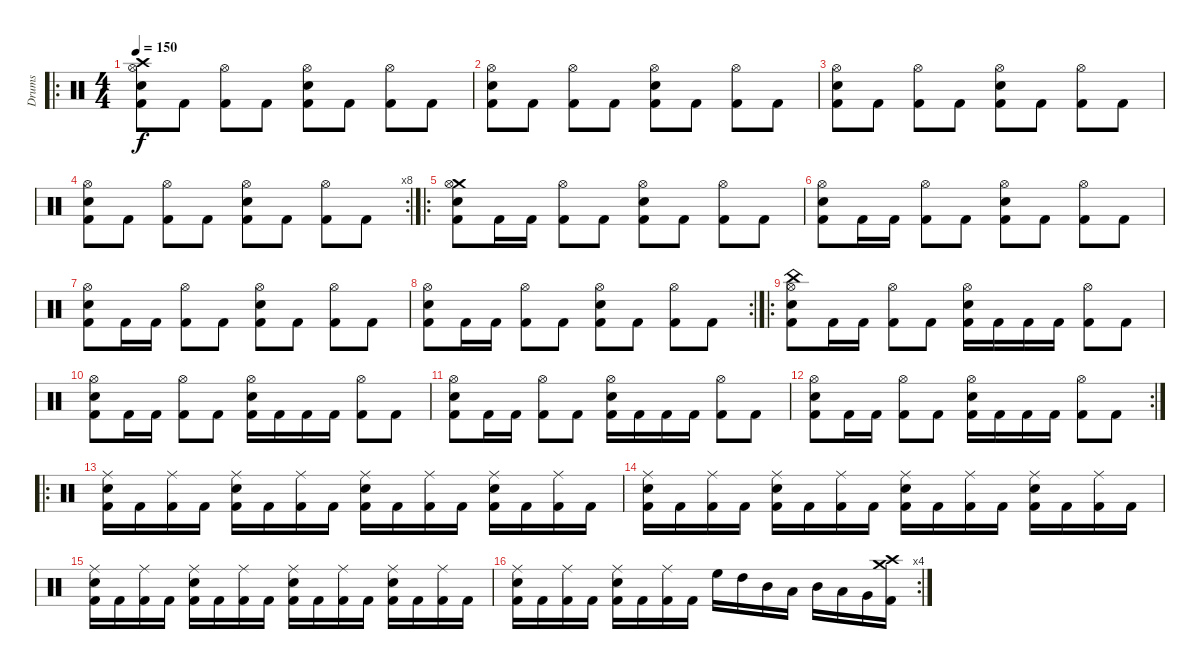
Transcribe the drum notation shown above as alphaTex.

\track ("Drums" "Drums") {instrument percussion}
\staff {score}
\articulation defaults
\ro
\ts (4 4)
\tempo 150
\clef neutral
\ks c
("Crash high (hit)" "Hi-Hat (open)" "Snare (hit) 2" "Kick (hit) 2").8{dy f} "Kick (hit) 2".8 ("Hi-Hat (open)" "Kick (hit) 2").8 "Kick (hit) 2".8 ("Hi-Hat (open)" "Snare (hit) 2" "Kick (hit) 2").8 "Kick (hit) 2".8 ("Hi-Hat (open)" "Kick (hit) 2").8 "Kick (hit) 2".8 |
("Hi-Hat (open)" "Snare (hit) 2" "Kick (hit) 2").8 "Kick (hit) 2".8 ("Hi-Hat (open)" "Kick (hit) 2").8 "Kick (hit) 2".8 ("Hi-Hat (open)" "Snare (hit) 2" "Kick (hit) 2").8 "Kick (hit) 2".8 ("Hi-Hat (open)" "Kick (hit) 2").8 "Kick (hit) 2".8 |
("Hi-Hat (open)" "Snare (hit) 2" "Kick (hit) 2").8 "Kick (hit) 2".8 ("Hi-Hat (open)" "Kick (hit) 2").8 "Kick (hit) 2".8 ("Hi-Hat (open)" "Snare (hit) 2" "Kick (hit) 2").8 "Kick (hit) 2".8 ("Hi-Hat (open)" "Kick (hit) 2").8 "Kick (hit) 2".8 |
\rc 8
("Hi-Hat (open)" "Snare (hit) 2" "Kick (hit) 2").8 "Kick (hit) 2".8 ("Hi-Hat (open)" "Kick (hit) 2").8 "Kick (hit) 2".8 ("Hi-Hat (open)" "Snare (hit) 2" "Kick (hit) 2").8 "Kick (hit) 2".8 ("Hi-Hat (open)" "Kick (hit) 2").8 "Kick (hit) 2".8 |
\ro
("Crash medium (hit)" "Hi-Hat (open)" "Snare (hit) 2" "Kick (hit) 2").8 "Kick (hit) 2".16 "Kick (hit) 2".16 ("Hi-Hat (open)" "Kick (hit) 2").8 "Kick (hit) 2".8 ("Hi-Hat (open)" "Snare (hit) 2" "Kick (hit) 2").8 "Kick (hit) 2".8 ("Hi-Hat (open)" "Kick (hit) 2").8 "Kick (hit) 2".8 |
("Hi-Hat (open)" "Snare (hit) 2" "Kick (hit) 2").8 "Kick (hit) 2".16 "Kick (hit) 2".16 ("Hi-Hat (open)" "Kick (hit) 2").8 "Kick (hit) 2".8 ("Hi-Hat (open)" "Snare (hit) 2" "Kick (hit) 2").8 "Kick (hit) 2".8 ("Hi-Hat (open)" "Kick (hit) 2").8 "Kick (hit) 2".8 |
("Hi-Hat (open)" "Snare (hit) 2" "Kick (hit) 2").8 "Kick (hit) 2".16 "Kick (hit) 2".16 ("Hi-Hat (open)" "Kick (hit) 2").8 "Kick (hit) 2".8 ("Hi-Hat (open)" "Snare (hit) 2" "Kick (hit) 2").8 "Kick (hit) 2".8 ("Hi-Hat (open)" "Kick (hit) 2").8 "Kick (hit) 2".8 |
\rc 2
("Hi-Hat (open)" "Snare (hit) 2" "Kick (hit) 2").8 "Kick (hit) 2".16 "Kick (hit) 2".16 ("Hi-Hat (open)" "Kick (hit) 2").8 "Kick (hit) 2".8 ("Hi-Hat (open)" "Snare (hit) 2" "Kick (hit) 2").8 "Kick (hit) 2".8 ("Hi-Hat (open)" "Kick (hit) 2").8 "Kick (hit) 2".8 |
\ro
("China (hit)" "Hi-Hat (open)" "Snare (hit) 2" "Kick (hit) 2").8 "Kick (hit) 2".16 "Kick (hit) 2".16 ("Hi-Hat (open)" "Kick (hit) 2").8 "Kick (hit) 2".8 ("Hi-Hat (open)" "Snare (hit) 2" "Kick (hit) 2").16 "Kick (hit) 2".16 "Kick (hit) 2".16 "Kick (hit) 2".16 ("Hi-Hat (open)" "Kick (hit) 2").8 "Kick (hit) 2".8 |
("Hi-Hat (open)" "Snare (hit) 2" "Kick (hit) 2").8 "Kick (hit) 2".16 "Kick (hit) 2".16 ("Hi-Hat (open)" "Kick (hit) 2").8 "Kick (hit) 2".8 ("Hi-Hat (open)" "Snare (hit) 2" "Kick (hit) 2").16 "Kick (hit) 2".16 "Kick (hit) 2".16 "Kick (hit) 2".16 ("Hi-Hat (open)" "Kick (hit) 2").8 "Kick (hit) 2".8 |
("Hi-Hat (open)" "Snare (hit) 2" "Kick (hit) 2").8 "Kick (hit) 2".16 "Kick (hit) 2".16 ("Hi-Hat (open)" "Kick (hit) 2").8 "Kick (hit) 2".8 ("Hi-Hat (open)" "Snare (hit) 2" "Kick (hit) 2").16 "Kick (hit) 2".16 "Kick (hit) 2".16 "Kick (hit) 2".16 ("Hi-Hat (open)" "Kick (hit) 2").8 "Kick (hit) 2".8 |
\rc 2
("Hi-Hat (open)" "Snare (hit) 2" "Kick (hit) 2").8 "Kick (hit) 2".16 "Kick (hit) 2".16 ("Hi-Hat (open)" "Kick (hit) 2").8 "Kick (hit) 2".8 ("Hi-Hat (open)" "Snare (hit) 2" "Kick (hit) 2").16 "Kick (hit) 2".16 "Kick (hit) 2".16 "Kick (hit) 2".16 ("Hi-Hat (open)" "Kick (hit) 2").8 "Kick (hit) 2".8 |
\ro
("Ride (middle)" "Snare (hit) 2" "Kick (hit) 2").16 "Kick (hit) 2".16 ("Ride (middle)" "Kick (hit) 2").16 "Kick (hit) 2".16 ("Ride (middle)" "Snare (hit) 2" "Kick (hit) 2").16 "Kick (hit) 2".16 ("Ride (middle)" "Kick (hit) 2").16 "Kick (hit) 2".16 ("Ride (middle)" "Snare (hit) 2" "Kick (hit) 2").16 "Kick (hit) 2".16 ("Ride (middle)" "Kick (hit) 2").16 "Kick (hit) 2".16 ("Ride (middle)" "Snare (hit) 2" "Kick (hit) 2").16 "Kick (hit) 2".16 ("Ride (middle)" "Kick (hit) 2").16 "Kick (hit) 2".16 |
("Ride (middle)" "Snare (hit) 2" "Kick (hit) 2").16 "Kick (hit) 2".16 ("Ride (middle)" "Kick (hit) 2").16 "Kick (hit) 2".16 ("Ride (middle)" "Snare (hit) 2" "Kick (hit) 2").16 "Kick (hit) 2".16 ("Ride (middle)" "Kick (hit) 2").16 "Kick (hit) 2".16 ("Ride (middle)" "Snare (hit) 2" "Kick (hit) 2").16 "Kick (hit) 2".16 ("Ride (middle)" "Kick (hit) 2").16 "Kick (hit) 2".16 ("Ride (middle)" "Snare (hit) 2" "Kick (hit) 2").16 "Kick (hit) 2".16 ("Ride (middle)" "Kick (hit) 2").16 "Kick (hit) 2".16 |
("Ride (middle)" "Snare (hit) 2" "Kick (hit) 2").16 "Kick (hit) 2".16 ("Ride (middle)" "Kick (hit) 2").16 "Kick (hit) 2".16 ("Ride (middle)" "Snare (hit) 2" "Kick (hit) 2").16 "Kick (hit) 2".16 ("Ride (middle)" "Kick (hit) 2").16 "Kick (hit) 2".16 ("Ride (middle)" "Snare (hit) 2" "Kick (hit) 2").16 "Kick (hit) 2".16 ("Ride (middle)" "Kick (hit) 2").16 "Kick (hit) 2".16 ("Ride (middle)" "Snare (hit) 2" "Kick (hit) 2").16 "Kick (hit) 2".16 ("Ride (middle)" "Kick (hit) 2").16 "Kick (hit) 2".16 |
\rc 4
("Ride (middle)" "Snare (hit) 2" "Kick (hit) 2").16 "Kick (hit) 2".16 ("Ride (middle)" "Kick (hit) 2").16 "Kick (hit) 2".16 ("Ride (middle)" "Snare (hit) 2" "Kick (hit) 2").16 "Kick (hit) 2".16 ("Ride (middle)" "Kick (hit) 2").16 "Kick (hit) 2".16 "High Floor Tom (hit)".16 "High Tom (hit)".16 "Mid Tom (hit)".16 "Low Tom (hit)".16 "Mid Tom (hit)".16 "Low Tom (hit)".16 "Very Low Tom (hit)".16 ("Crash medium (hit)" "Crash high (hit)" "Kick (hit) 2").16
